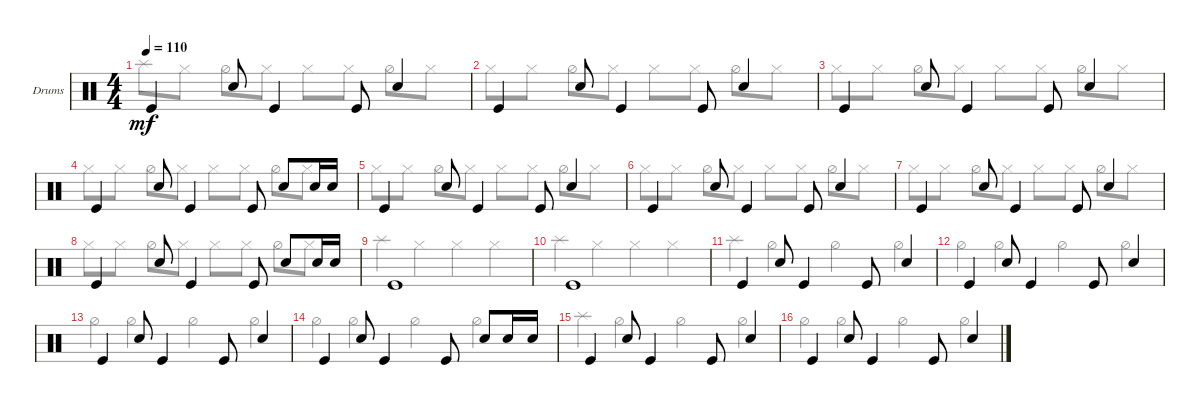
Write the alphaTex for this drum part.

\defaultSystemsLayout 4
\bracketExtendMode groupsimilarinstruments
\firstSystemTrackNameOrientation horizontal
\otherSystemsTrackNameOrientation horizontal
\track ("Drumkit" "Drums") {instrument percussion}
\staff {score}
\articulation defaults
\voice
\ts (4 4)
\tempo 110
\clef neutral
\scale
0.333333
\ks c "Kick (hit)".4{dy mf} "Snare (hit) 2".8 "Kick (hit)".4 "Kick (hit)".8 "Snare (hit) 2".4
|
\scale
0.333333 "Kick (hit)".4 "Snare (hit) 2".8 "Kick (hit)".4 "Kick (hit)".8 "Snare (hit) 2".4 |
\scale
0.333333 "Kick (hit)".4 "Snare (hit) 2".8 "Kick (hit)".4 "Kick (hit)".8 "Snare (hit) 2".4 |
\scale
0.333333 "Kick (hit)".4 "Snare (hit) 2".8 "Kick (hit)".4 "Kick (hit)".8 "Snare (hit) 2".8 "Snare (hit) 2".16 "Snare (hit) 2".16 |
\scale
0.333333 "Kick (hit)".4 "Snare (hit) 2".8 "Kick (hit)".4 "Kick (hit)".8 "Snare (hit) 2".4 |
\scale
0.333333 "Kick (hit)".4 "Snare (hit) 2".8 "Kick (hit)".4 "Kick (hit)".8 "Snare (hit) 2".4 |
\scale
0.333333 "Kick (hit)".4 "Snare (hit) 2".8 "Kick (hit)".4 "Kick (hit)".8 "Snare (hit) 2".4 |
\scale
0.333333 "Kick (hit)".4 "Snare (hit) 2".8 "Kick (hit)".4 "Kick (hit)".8 "Snare (hit) 2".8 "Snare (hit) 2".16 "Snare (hit) 2".16 |
\scale
0.333333 "Kick (hit)".1 |
\scale
0.333333 "Kick (hit)".1 |
\scale
0.333333 "Kick (hit)".4 "Snare (hit) 2".8 "Kick (hit)".4 "Kick (hit)".8 "Snare (hit) 2".4 |
\scale
0.333333 "Kick (hit)".4 "Snare (hit) 2".8 "Kick (hit)".4 "Kick (hit)".8 "Snare (hit) 2".4 |
\scale
0.333333 "Kick (hit)".4 "Snare (hit) 2".8 "Kick (hit)".4 "Kick (hit)".8 "Snare (hit) 2".4 |
\scale
0.333333 "Kick (hit)".4 "Snare (hit) 2".8 "Kick (hit)".4 "Kick (hit)".8 "Snare (hit) 2".8 "Snare (hit) 2".16 "Snare (hit) 2".16 |
\scale
0.333333 "Kick (hit)".4 "Snare (hit) 2".8 "Kick (hit)".4 "Kick (hit)".8 "Snare (hit) 2".4 |
\scale
0.333333 "Kick (hit)".4 "Snare (hit) 2".8 "Kick (hit)".4 "Kick (hit)".8 "Snare (hit) 2".4
\voice
\clef neutral
\ottava regular
\simile none
\scale
0.333333
\ks c "Splash (hit)".8{dy mf} "Hi-Hat (closed)".8 "Hi-Hat (half)".8 "Hi-Hat (closed)".8 "Hi-Hat (closed)".8 "Hi-Hat (closed)".8 "Hi-Hat (half)".8 "Hi-Hat (closed)".8
|
\scale
0.333333 "Hi-Hat (closed)".8 "Hi-Hat (closed)".8 "Hi-Hat (half)".8 "Hi-Hat (closed)".8 "Hi-Hat (closed)".8 "Hi-Hat (closed)".8 "Hi-Hat (half)".8 "Hi-Hat (closed)".8 |
\scale
0.333333 "Hi-Hat (closed)".8 "Hi-Hat (closed)".8 "Hi-Hat (half)".8 "Hi-Hat (closed)".8 "Hi-Hat (closed)".8 "Hi-Hat (closed)".8 "Hi-Hat (half)".8 "Hi-Hat (closed)".8 |
\scale
0.333333 "Hi-Hat (closed)".8 "Hi-Hat (closed)".8 "Hi-Hat (half)".8 "Hi-Hat (closed)".8 "Hi-Hat (closed)".8 "Hi-Hat (closed)".8 "Hi-Hat (half)".8 "Hi-Hat (closed)".8 |
\scale
0.333333 "Hi-Hat (closed)".8 "Hi-Hat (closed)".8 "Hi-Hat (half)".8 "Hi-Hat (closed)".8 "Hi-Hat (closed)".8 "Hi-Hat (closed)".8 "Hi-Hat (half)".8 "Hi-Hat (closed)".8 |
\scale
0.333333 "Hi-Hat (closed)".8 "Hi-Hat (closed)".8 "Hi-Hat (half)".8 "Hi-Hat (closed)".8 "Hi-Hat (closed)".8 "Hi-Hat (closed)".8 "Hi-Hat (half)".8 "Hi-Hat (closed)".8 |
\scale
0.333333 "Hi-Hat (closed)".8 "Hi-Hat (closed)".8 "Hi-Hat (half)".8 "Hi-Hat (closed)".8 "Hi-Hat (closed)".8 "Hi-Hat (closed)".8 "Hi-Hat (half)".8 "Hi-Hat (closed)".8 |
\scale
0.333333 "Hi-Hat (closed)".8 "Hi-Hat (closed)".8 "Hi-Hat (half)".8 "Hi-Hat (closed)".8 "Hi-Hat (closed)".8 "Hi-Hat (closed)".8 "Hi-Hat (half)".8 "Hi-Hat (closed)".8 |
\scale
0.333333 "Splash (hit)".4 "Hi-Hat (closed)".4 "Hi-Hat (closed)".4 "Hi-Hat (closed)".4 |
\scale
0.333333 "Splash (hit)".4 "Hi-Hat (closed)".4 "Hi-Hat (closed)".4 "Hi-Hat (closed)".4 |
\scale
0.333333 "Splash (hit)".4 "Hi-Hat (half)".4 "Hi-Hat (half)".4 "Hi-Hat (half)".4 |
\scale
0.333333 "Hi-Hat (half)".4 "Hi-Hat (half)".4 "Hi-Hat (half)".4 "Hi-Hat (half)".4 |
\scale
0.333333 "Hi-Hat (half)".4 "Hi-Hat (half)".4 "Hi-Hat (half)".4 "Hi-Hat (half)".4 |
\scale
0.333333 "Hi-Hat (half)".4 "Hi-Hat (half)".4 "Hi-Hat (half)".4 "Hi-Hat (half)".4 |
\scale
0.333333 "Splash (hit)".4 "Hi-Hat (half)".4 "Hi-Hat (half)".4 "Hi-Hat (half)".4 |
\scale
0.333333 "Hi-Hat (half)".4 "Hi-Hat (half)".4 "Hi-Hat (half)".4 "Hi-Hat (half)".4
